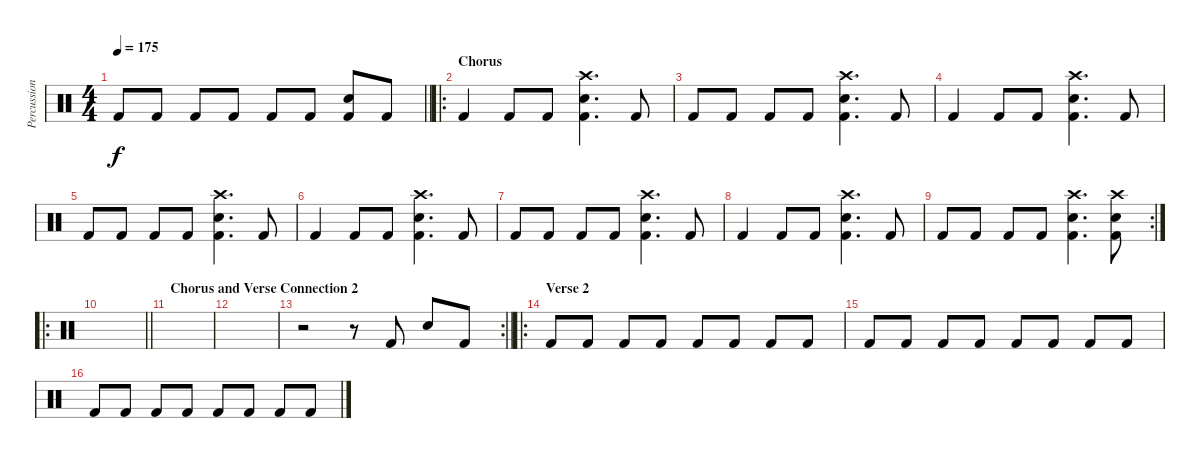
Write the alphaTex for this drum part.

\track ("Percussion" "Percussion") {instrument percussion}
\staff {score}
\articulation defaults
\ts (4 4)
\tempo 175
\clef neutral
\barLineRight lightlight
\ks c "Kick (hit) 2".8{dy f} "Kick (hit) 2".8 "Kick (hit) 2".8 "Kick (hit) 2".8 "Kick (hit) 2".8 "Kick (hit) 2".8
("Snare (hit) 2" "Kick (hit) 2").8 "Kick (hit) 2".8 |
\ro
\section ("" "Chorus")
"Kick (hit) 2".4 "Kick (hit) 2".8 "Kick (hit) 2".8 ("Crash high (hit)" "Snare (hit) 2" "Kick (hit) 2").4{d} "Kick (hit) 2".8 |
"Kick (hit) 2".8 "Kick (hit) 2".8 "Kick (hit) 2".8 "Kick (hit) 2".8 ("Crash high (hit)" "Snare (hit) 2" "Kick (hit) 2").4{d} "Kick (hit) 2".8 |
"Kick (hit) 2".4 "Kick (hit) 2".8 "Kick (hit) 2".8 ("Crash high (hit)" "Snare (hit) 2" "Kick (hit) 2").4{d} "Kick (hit) 2".8 |
"Kick (hit) 2".8 "Kick (hit) 2".8 "Kick (hit) 2".8 "Kick (hit) 2".8 ("Crash high (hit)" "Snare (hit) 2" "Kick (hit) 2").4{d} "Kick (hit) 2".8 |
"Kick (hit) 2".4 "Kick (hit) 2".8 "Kick (hit) 2".8 ("Crash high (hit)" "Snare (hit) 2" "Kick (hit) 2").4{d} "Kick (hit) 2".8 |
"Kick (hit) 2".8 "Kick (hit) 2".8 "Kick (hit) 2".8 "Kick (hit) 2".8 ("Crash high (hit)" "Snare (hit) 2" "Kick (hit) 2").4{d} "Kick (hit) 2".8 |
"Kick (hit) 2".4 "Kick (hit) 2".8 "Kick (hit) 2".8 ("Crash high (hit)" "Snare (hit) 2" "Kick (hit) 2").4{d} "Kick (hit) 2".8 |
\rc 2 "Kick (hit) 2".8 "Kick (hit) 2".8 "Kick (hit) 2".8 "Kick (hit) 2".8
("Crash high (hit)" "Snare (hit) 2" "Kick (hit) 2").4{d} ("Crash high (hit)" "Snare (hit) 2" "Kick (hit) 2").8 |
\ro
\barLineRight lightlight
|
\section ("" "Chorus and Verse Connection 2")
|
|
\rc 2
\barLineRight lightlight
r.2 r.8 "Kick (hit) 2".8 "Snare (hit) 2".8 "Kick (hit) 2".8 |
\ro
\section ("" "Verse 2")
"Kick (hit) 2".8 "Kick (hit) 2".8 "Kick (hit) 2".8 "Kick (hit) 2".8 "Kick (hit) 2".8 "Kick (hit) 2".8 "Kick (hit) 2".8 "Kick (hit) 2".8 |
"Kick (hit) 2".8 "Kick (hit) 2".8 "Kick (hit) 2".8 "Kick (hit) 2".8 "Kick (hit) 2".8 "Kick (hit) 2".8 "Kick (hit) 2".8 "Kick (hit) 2".8 |
"Kick (hit) 2".8 "Kick (hit) 2".8 "Kick (hit) 2".8 "Kick (hit) 2".8 "Kick (hit) 2".8 "Kick (hit) 2".8 "Kick (hit) 2".8 "Kick (hit) 2".8
